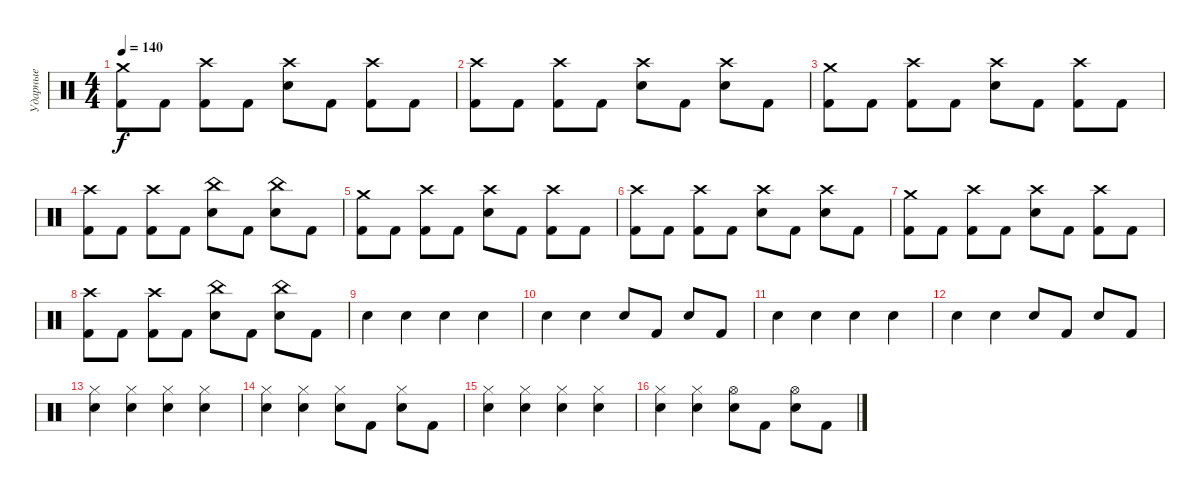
\track ("Ударные" "Ударные") {instrument percussion}
\staff {score}
\articulation defaults
\ts (4 4)
\tempo 140
\clef neutral
\ks c
("Crash medium (hit)" "Kick (hit) 2").8{dy f} "Kick (hit) 2".8 ("Crash high (hit)" "Kick (hit) 2").8 "Kick (hit) 2".8 ("Crash high (hit)" "Electric Snare (hit)").8 "Kick (hit) 2".8 ("Crash high (hit)" "Kick (hit) 2").8 "Kick (hit) 2".8 |
("Crash high (hit)" "Kick (hit) 2").8 "Kick (hit) 2".8 ("Crash high (hit)" "Kick (hit) 2").8 "Kick (hit) 2".8 ("Crash high (hit)" "Electric Snare (hit)").8 "Kick (hit) 2".8 ("Crash high (hit)" "Electric Snare (hit)").8 "Kick (hit) 2".8 |
("Crash medium (hit)" "Kick (hit) 2").8 "Kick (hit) 2".8 ("Crash high (hit)" "Kick (hit) 2").8 "Kick (hit) 2".8 ("Crash high (hit)" "Electric Snare (hit)").8 "Kick (hit) 2".8 ("Crash high (hit)" "Kick (hit) 2").8 "Kick (hit) 2".8 |
("Crash high (hit)" "Kick (hit) 2").8 "Kick (hit) 2".8 ("Crash high (hit)" "Kick (hit) 2").8 "Kick (hit) 2".8 ("China (hit)" "Electric Snare (hit)").8 "Kick (hit) 2".8 ("China (hit)" "Electric Snare (hit)").8 "Kick (hit) 2".8 |
("Crash medium (hit)" "Kick (hit) 2").8 "Kick (hit) 2".8 ("Crash high (hit)" "Kick (hit) 2").8 "Kick (hit) 2".8 ("Crash high (hit)" "Electric Snare (hit)").8 "Kick (hit) 2".8 ("Crash high (hit)" "Kick (hit) 2").8 "Kick (hit) 2".8 |
("Crash high (hit)" "Kick (hit) 2").8 "Kick (hit) 2".8 ("Crash high (hit)" "Kick (hit) 2").8 "Kick (hit) 2".8 ("Crash high (hit)" "Electric Snare (hit)").8 "Kick (hit) 2".8 ("Crash high (hit)" "Electric Snare (hit)").8 "Kick (hit) 2".8 |
("Crash medium (hit)" "Kick (hit) 2").8 "Kick (hit) 2".8 ("Crash high (hit)" "Kick (hit) 2").8 "Kick (hit) 2".8 ("Crash high (hit)" "Electric Snare (hit)").8 "Kick (hit) 2".8 ("Crash high (hit)" "Kick (hit) 2").8 "Kick (hit) 2".8 |
("Crash high (hit)" "Kick (hit) 2").8 "Kick (hit) 2".8 ("Crash high (hit)" "Kick (hit) 2").8 "Kick (hit) 2".8 ("China (hit)" "Electric Snare (hit)").8 "Kick (hit) 2".8 ("China (hit)" "Electric Snare (hit)").8 "Kick (hit) 2".8 |
"Electric Snare (hit)".4 "Electric Snare (hit)".4 "Electric Snare (hit)".4 "Electric Snare (hit)".4 |
"Electric Snare (hit)".4 "Electric Snare (hit)".4 "Electric Snare (hit)".8 "Kick (hit) 2".8 "Electric Snare (hit)".8 "Kick (hit) 2".8 |
"Electric Snare (hit)".4 "Electric Snare (hit)".4 "Electric Snare (hit)".4 "Electric Snare (hit)".4 |
"Electric Snare (hit)".4 "Electric Snare (hit)".4 "Electric Snare (hit)".8 "Kick (hit) 2".8 "Electric Snare (hit)".8 "Kick (hit) 2".8 |
("Hi-Hat (closed)" "Electric Snare (hit)").4 ("Hi-Hat (closed)" "Electric Snare (hit)").4 ("Hi-Hat (closed)" "Electric Snare (hit)").4 ("Hi-Hat (closed)" "Electric Snare (hit)").4 |
("Hi-Hat (closed)" "Electric Snare (hit)").4 ("Hi-Hat (closed)" "Electric Snare (hit)").4 ("Hi-Hat (closed)" "Electric Snare (hit)").8 "Kick (hit) 2".8 ("Hi-Hat (closed)" "Electric Snare (hit)").8 "Kick (hit) 2".8 |
("Hi-Hat (closed)" "Electric Snare (hit)").4 ("Hi-Hat (closed)" "Electric Snare (hit)").4 ("Hi-Hat (closed)" "Electric Snare (hit)").4 ("Hi-Hat (closed)" "Electric Snare (hit)").4 |
("Hi-Hat (closed)" "Electric Snare (hit)").4 ("Hi-Hat (closed)" "Electric Snare (hit)").4 ("Hi-Hat (open)" "Electric Snare (hit)").8 "Kick (hit) 2".8 ("Hi-Hat (open)" "Electric Snare (hit)").8 "Kick (hit) 2".8
